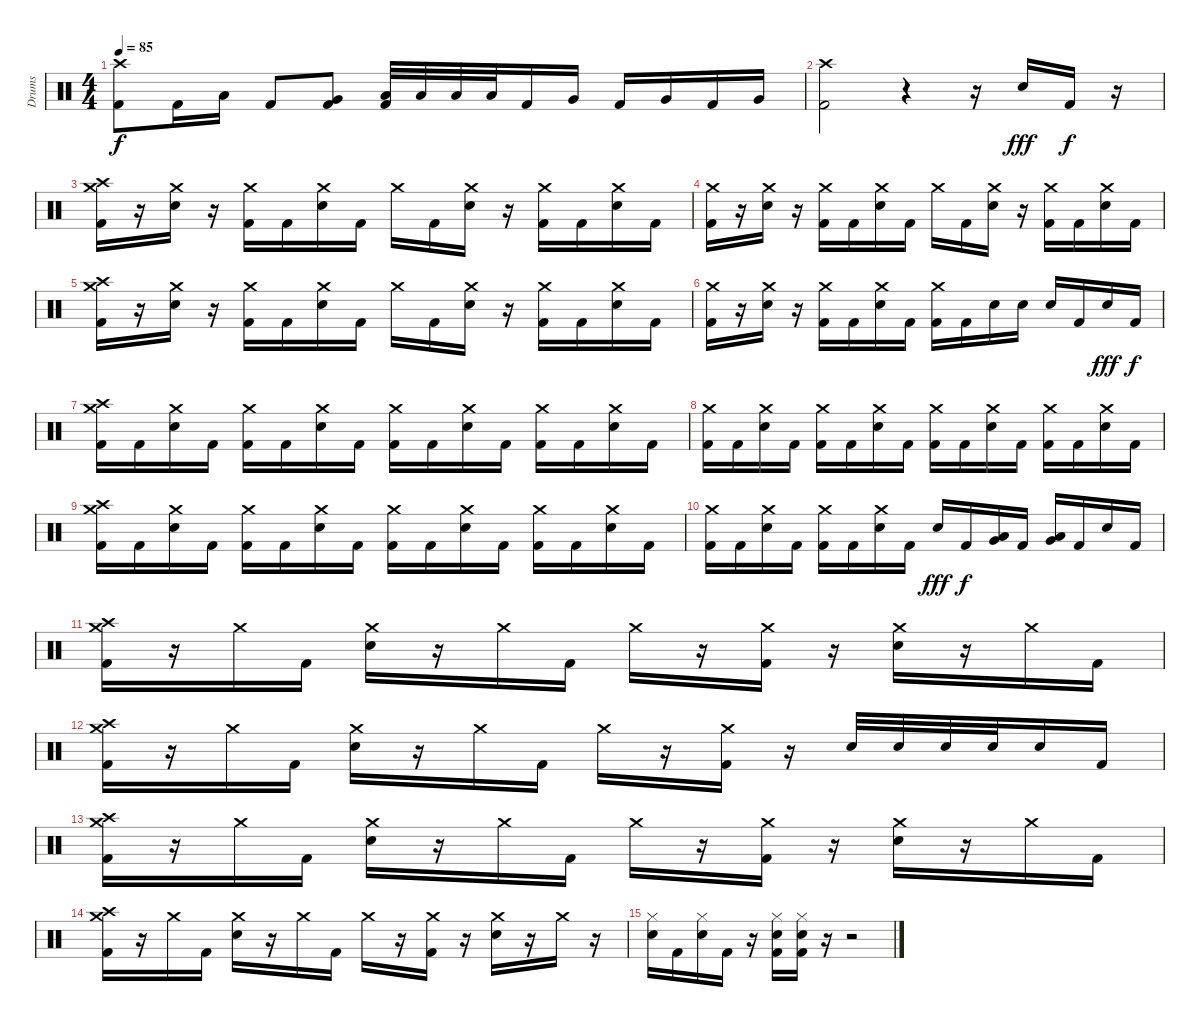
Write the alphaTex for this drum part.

\track ("Drums" "Drums") {instrument percussion}
\staff {score}
\articulation defaults
\ts (4 4)
\tempo 85
\clef neutral
\ks c
("Crash high (hit)" "Kick (hit) 2").8{dy f} "Kick (hit) 2".16 "Low Tom (hit)".16 "Kick (hit) 2".8 ("Very Low Tom (hit)" "Kick (hit) 2").8 ("Low Tom (hit)" "Kick (hit) 2").32 "Low Tom (hit)".32 "Low Tom (hit)".32 "Low Tom (hit)".32 "Kick (hit) 2".16 "Very Low Tom (hit)".16 "Kick (hit) 2".16 "Very Low Tom (hit)".16 "Kick (hit) 2".16 "Very Low Tom (hit)".16 |
("Crash high (hit)" "Kick (hit) 2").2 r.4 r.16 "Electric Snare (hit)".16{dy fff} "Kick (hit) 2".16{dy f} r.16 |
("Crash medium (hit)" "Crash high (hit)" "Kick (hit) 2").16 r.16 ("Crash medium (hit)" "Electric Snare (hit)").16 r.16 ("Crash medium (hit)" "Kick (hit) 2").16 "Kick (hit) 2".16 ("Crash medium (hit)" "Electric Snare (hit)").16 "Kick (hit) 2".16 "Crash medium (hit)".16 "Kick (hit) 2".16 ("Crash medium (hit)" "Electric Snare (hit)").16 r.16 ("Crash medium (hit)" "Kick (hit) 2").16 "Kick (hit) 2".16 ("Crash medium (hit)" "Electric Snare (hit)").16 "Kick (hit) 2".16 |
("Crash medium (hit)" "Kick (hit) 2").16 r.16 ("Crash medium (hit)" "Electric Snare (hit)").16 r.16 ("Crash medium (hit)" "Kick (hit) 2").16 "Kick (hit) 2".16 ("Crash medium (hit)" "Electric Snare (hit)").16 "Kick (hit) 2".16 "Crash medium (hit)".16 "Kick (hit) 2".16 ("Crash medium (hit)" "Electric Snare (hit)").16 r.16 ("Crash medium (hit)" "Kick (hit) 2").16 "Kick (hit) 2".16 ("Crash medium (hit)" "Electric Snare (hit)").16 "Kick (hit) 2".16 |
("Crash medium (hit)" "Crash high (hit)" "Kick (hit) 2").16 r.16 ("Crash medium (hit)" "Electric Snare (hit)").16 r.16 ("Crash medium (hit)" "Kick (hit) 2").16 "Kick (hit) 2".16 ("Crash medium (hit)" "Electric Snare (hit)").16 "Kick (hit) 2".16 "Crash medium (hit)".16 "Kick (hit) 2".16 ("Crash medium (hit)" "Electric Snare (hit)").16 r.16 ("Crash medium (hit)" "Kick (hit) 2").16 "Kick (hit) 2".16 ("Crash medium (hit)" "Electric Snare (hit)").16 "Kick (hit) 2".16 |
("Crash medium (hit)" "Kick (hit) 2").16 r.16 ("Crash medium (hit)" "Electric Snare (hit)").16 r.16 ("Crash medium (hit)" "Kick (hit) 2").16 "Kick (hit) 2".16 ("Crash medium (hit)" "Electric Snare (hit)").16 "Kick (hit) 2".16 ("Crash medium (hit)" "Kick (hit) 2").16 "Kick (hit) 2".16 "Electric Snare (hit)".16 "Electric Snare (hit)".16 "Electric Snare (hit)".16 "Kick (hit) 2".16 "Electric Snare (hit)".16{dy fff} "Kick (hit) 2".16{dy f} |
("Crash medium (hit)" "Crash high (hit)" "Kick (hit) 2").16 "Kick (hit) 2".16 ("Crash medium (hit)" "Electric Snare (hit)").16 "Kick (hit) 2".16 ("Crash medium (hit)" "Kick (hit) 2").16 "Kick (hit) 2".16 ("Crash medium (hit)" "Electric Snare (hit)").16 "Kick (hit) 2".16 ("Crash medium (hit)" "Kick (hit) 2").16 "Kick (hit) 2".16 ("Crash medium (hit)" "Electric Snare (hit)").16 "Kick (hit) 2".16 ("Crash medium (hit)" "Kick (hit) 2").16 "Kick (hit) 2".16 ("Crash medium (hit)" "Electric Snare (hit)").16 "Kick (hit) 2".16 |
("Crash medium (hit)" "Kick (hit) 2").16 "Kick (hit) 2".16 ("Crash medium (hit)" "Electric Snare (hit)").16 "Kick (hit) 2".16 ("Crash medium (hit)" "Kick (hit) 2").16 "Kick (hit) 2".16 ("Crash medium (hit)" "Electric Snare (hit)").16 "Kick (hit) 2".16 ("Crash medium (hit)" "Kick (hit) 2").16 "Kick (hit) 2".16 ("Crash medium (hit)" "Electric Snare (hit)").16 "Kick (hit) 2".16 ("Crash medium (hit)" "Kick (hit) 2").16 "Kick (hit) 2".16 ("Crash medium (hit)" "Electric Snare (hit)").16 "Kick (hit) 2".16 |
("Crash medium (hit)" "Crash high (hit)" "Kick (hit) 2").16 "Kick (hit) 2".16 ("Crash medium (hit)" "Electric Snare (hit)").16 "Kick (hit) 2".16 ("Crash medium (hit)" "Kick (hit) 2").16 "Kick (hit) 2".16 ("Crash medium (hit)" "Electric Snare (hit)").16 "Kick (hit) 2".16 ("Crash medium (hit)" "Kick (hit) 2").16 "Kick (hit) 2".16 ("Crash medium (hit)" "Electric Snare (hit)").16 "Kick (hit) 2".16 ("Crash medium (hit)" "Kick (hit) 2").16 "Kick (hit) 2".16 ("Crash medium (hit)" "Electric Snare (hit)").16 "Kick (hit) 2".16 |
("Crash medium (hit)" "Kick (hit) 2").16 "Kick (hit) 2".16 ("Crash medium (hit)" "Electric Snare (hit)").16 "Kick (hit) 2".16 ("Crash medium (hit)" "Kick (hit) 2").16 "Kick (hit) 2".16 ("Crash medium (hit)" "Electric Snare (hit)").16 "Kick (hit) 2".16 "Electric Snare (hit)".16{dy fff} "Kick (hit) 2".16{dy f} ("Low Tom (hit)" "Very Low Tom (hit)").16 "Kick (hit) 2".16 ("Low Tom (hit)" "Very Low Tom (hit)").16 "Kick (hit) 2".16 "Electric Snare (hit)".16 "Kick (hit) 2".16 |
("Crash medium (hit)" "Crash high (hit)" "Kick (hit) 2").16 r.16 "Crash medium (hit)".16 "Kick (hit) 2".16 ("Crash medium (hit)" "Electric Snare (hit)").16 r.16 "Crash medium (hit)".16 "Kick (hit) 2".16 "Crash medium (hit)".16 r.16 ("Crash medium (hit)" "Kick (hit) 2").16 r.16 ("Crash medium (hit)" "Electric Snare (hit)").16 r.16 "Crash medium (hit)".16 "Kick (hit) 2".16 |
("Crash medium (hit)" "Crash high (hit)" "Kick (hit) 2").16 r.16 "Crash medium (hit)".16 "Kick (hit) 2".16 ("Crash medium (hit)" "Electric Snare (hit)").16 r.16 "Crash medium (hit)".16 "Kick (hit) 2".16 "Crash medium (hit)".16 r.16 ("Crash medium (hit)" "Kick (hit) 2").16 r.16 "Electric Snare (hit)".32 "Electric Snare (hit)".32 "Electric Snare (hit)".32 "Electric Snare (hit)".32 "Electric Snare (hit)".16 "Kick (hit) 2".16 |
("Crash medium (hit)" "Crash high (hit)" "Kick (hit) 2").16 r.16 "Crash medium (hit)".16 "Kick (hit) 2".16 ("Crash medium (hit)" "Electric Snare (hit)").16 r.16 "Crash medium (hit)".16 "Kick (hit) 2".16 "Crash medium (hit)".16 r.16 ("Crash medium (hit)" "Kick (hit) 2").16 r.16 ("Crash medium (hit)" "Electric Snare (hit)").16 r.16 "Crash medium (hit)".16 "Kick (hit) 2".16 |
("Crash medium (hit)" "Crash high (hit)" "Kick (hit) 2").16 r.16 "Crash medium (hit)".16 "Kick (hit) 2".16 ("Crash medium (hit)" "Electric Snare (hit)").16 r.16 "Crash medium (hit)".16 "Kick (hit) 2".16 "Crash medium (hit)".16 r.16 ("Crash medium (hit)" "Kick (hit) 2").16 r.16 ("Crash medium (hit)" "Electric Snare (hit)").16 r.16 "Crash medium (hit)".16 r.16 |
("Hi-Hat (closed)" "Electric Snare (hit)").16 "Kick (hit) 2".16 ("Hi-Hat (closed)" "Electric Snare (hit)").16 "Kick (hit) 2".16 r.16 ("Hi-Hat (closed)" "Electric Snare (hit)" "Kick (hit) 2").16 ("Hi-Hat (closed)" "Electric Snare (hit)" "Kick (hit) 2").16 r.16 r.2
